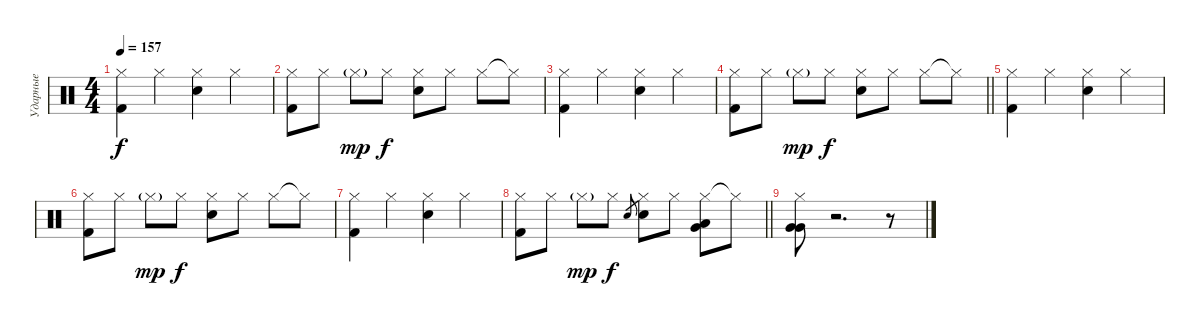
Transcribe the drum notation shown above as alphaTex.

\track ("Ударные" "Ударные") {instrument percussion}
\staff {score}
\articulation defaults
\ts (4 4)
\tempo 157
\clef neutral
\ks c
("Hi-Hat (closed)" "Kick (hit) 2").4{dy f} "Hi-Hat (closed)".4 ("Hi-Hat (closed)" "Snare (hit) 2").4 "Hi-Hat (closed)".4 |
("Hi-Hat (closed)" "Kick (hit) 2").8 "Hi-Hat (closed)".8 "Hi-Hat (closed)"{g}.8{dy mp} "Hi-Hat (closed)".8{dy f} ("Hi-Hat (closed)" "Snare (hit) 2").8 "Hi-Hat (closed)".8 "Hi-Hat (closed)".8 "Hi-Hat (closed)"{t}.8 |
("Hi-Hat (closed)" "Kick (hit) 2").4 "Hi-Hat (closed)".4 ("Hi-Hat (closed)" "Snare (hit) 2").4 "Hi-Hat (closed)".4 |
\barLineRight lightlight
("Hi-Hat (closed)" "Kick (hit) 2").8 "Hi-Hat (closed)".8 "Hi-Hat (closed)"{g}.8{dy mp} "Hi-Hat (closed)".8{dy f} ("Hi-Hat (closed)" "Snare (hit) 2").8 "Hi-Hat (closed)".8 "Hi-Hat (closed)".8 "Hi-Hat (closed)"{t}.8 |
("Hi-Hat (closed)" "Kick (hit) 2").4 "Hi-Hat (closed)".4 ("Hi-Hat (closed)" "Snare (hit) 2").4 "Hi-Hat (closed)".4 |
("Hi-Hat (closed)" "Kick (hit) 2").8 "Hi-Hat (closed)".8 "Hi-Hat (closed)"{g}.8{dy mp} "Hi-Hat (closed)".8{dy f} ("Hi-Hat (closed)" "Snare (hit) 2").8 "Hi-Hat (closed)".8 "Hi-Hat (closed)".8 "Hi-Hat (closed)"{t}.8 |
("Hi-Hat (closed)" "Kick (hit) 2").4 "Hi-Hat (closed)".4 ("Hi-Hat (closed)" "Snare (hit) 2").4 "Hi-Hat (closed)".4 |
\barLineRight lightlight
("Hi-Hat (closed)" "Kick (hit) 2").8 "Hi-Hat (closed)".8 "Hi-Hat (closed)"{g}.8{dy mp} "Hi-Hat (closed)".8{dy f} "Snare (hit) 2".8{gr} ("Hi-Hat (closed)" "Snare (hit) 2").8 "Hi-Hat (closed)".8 ("Hi-Hat (closed)" "Very Low Tom (hit)" "Low Tom (hit)").8 "Hi-Hat (closed)"{t}.8 |
("Hi-Hat (closed)" "Very Low Tom (hit)" "Very Low Tom (hit)").8 r.2{d} r.8
